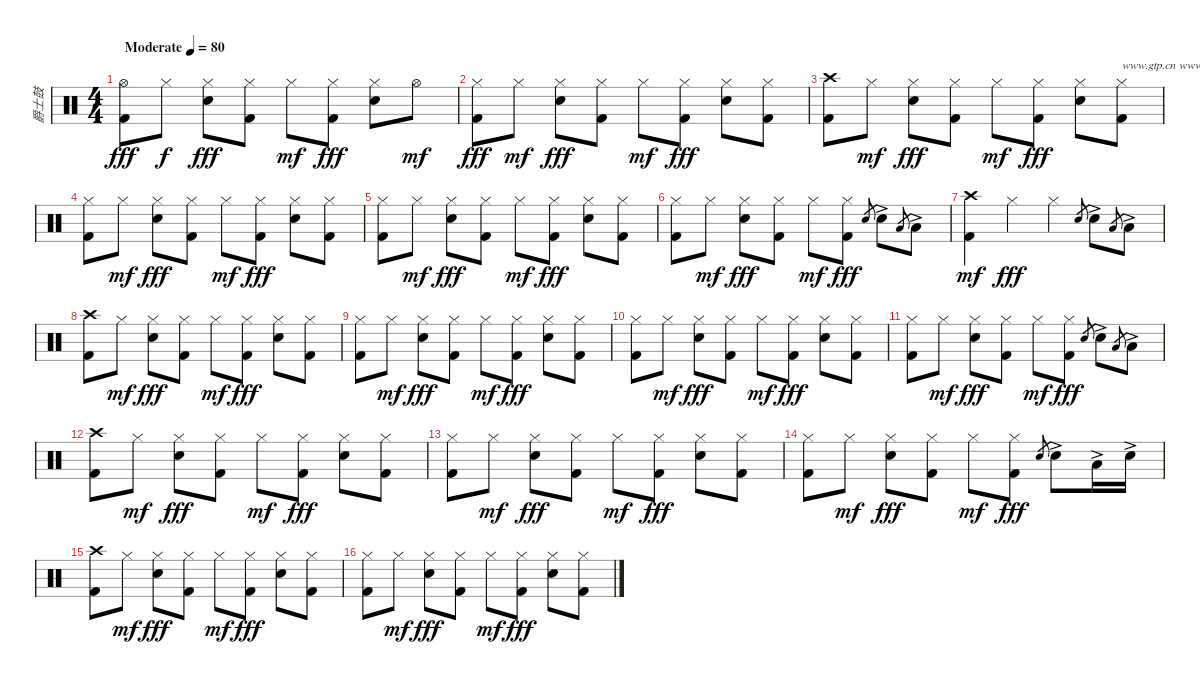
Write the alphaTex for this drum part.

\track ("爵士鼓" "爵士鼓") {instrument percussion}
\staff {score}
\articulation defaults
\ts (4 4)
\tempo (80 "Moderate")
\clef neutral
\ks c
("Hi-Hat (open)" "Kick (hit) 2").8{dy fff} "Hi-Hat (closed)".8{dy f} ("Hi-Hat (closed)" "Electric Snare (hit)").8{dy fff} ("Hi-Hat (closed)" "Kick (hit) 2").8 "Hi-Hat (closed)".8{dy mf} ("Hi-Hat (closed)" "Kick (hit) 2").8{dy fff} ("Hi-Hat (closed)" "Electric Snare (hit)").8 "Hi-Hat (open)".8{dy mf} |
("Hi-Hat (closed)" "Kick (hit) 2").8{dy fff} "Hi-Hat (closed)".8{dy mf} ("Hi-Hat (closed)" "Electric Snare (hit)").8{dy fff} ("Hi-Hat (closed)" "Kick (hit) 2").8 "Hi-Hat (closed)".8{dy mf} ("Hi-Hat (closed)" "Kick (hit) 2").8{dy fff} ("Hi-Hat (closed)" "Electric Snare (hit)").8 ("Hi-Hat (closed)" "Kick (hit) 2").8 |
("Crash high (hit)" "Kick (hit) 2").8 "Hi-Hat (closed)".8{dy mf} ("Hi-Hat (closed)" "Electric Snare (hit)").8{dy fff} ("Hi-Hat (closed)" "Kick (hit) 2").8 "Hi-Hat (closed)".8{dy mf} ("Hi-Hat (closed)" "Kick (hit) 2").8{dy fff} ("Hi-Hat (closed)" "Electric Snare (hit)").8 ("Hi-Hat (closed)" "Kick (hit) 2").8{txt "www.gtp.cn www.51gtp.com联合为您提供优秀的GTP!"} |
("Hi-Hat (closed)" "Kick (hit) 2").8 "Hi-Hat (closed)".8{dy mf} ("Hi-Hat (closed)" "Electric Snare (hit)").8{dy fff} ("Hi-Hat (closed)" "Kick (hit) 2").8 "Hi-Hat (closed)".8{dy mf} ("Hi-Hat (closed)" "Kick (hit) 2").8{dy fff} ("Hi-Hat (closed)" "Electric Snare (hit)").8 ("Hi-Hat (closed)" "Kick (hit) 2").8 |
("Hi-Hat (closed)" "Kick (hit) 2").8 "Hi-Hat (closed)".8{dy mf} ("Hi-Hat (closed)" "Electric Snare (hit)").8{dy fff} ("Hi-Hat (closed)" "Kick (hit) 2").8 "Hi-Hat (closed)".8{dy mf} ("Hi-Hat (closed)" "Kick (hit) 2").8{dy fff} ("Hi-Hat (closed)" "Electric Snare (hit)").8 ("Hi-Hat (closed)" "Kick (hit) 2").8 |
("Hi-Hat (closed)" "Kick (hit) 2").8 "Hi-Hat (closed)".8{dy mf} ("Hi-Hat (closed)" "Electric Snare (hit)").8{dy fff} ("Hi-Hat (closed)" "Kick (hit) 2").8 "Hi-Hat (closed)".8{dy mf} ("Hi-Hat (closed)" "Kick (hit) 2").8{dy fff} "Electric Snare (hit)".8{gr} "Electric Snare (hit)"{ac}.8 "Low Tom (hit)".8{gr} "Low Tom (hit)"{ac}.8 |
("Crash high (hit)" "Kick (hit) 2").4{dy mf} "Hi-Hat (closed)".4{dy fff} "Hi-Hat (closed)".4 "Electric Snare (hit)".8{gr} "Electric Snare (hit)"{ac}.8 "Low Tom (hit)".8{gr} "Low Tom (hit)"{ac}.8 |
("Crash high (hit)" "Kick (hit) 2").8 "Hi-Hat (closed)".8{dy mf} ("Hi-Hat (closed)" "Electric Snare (hit)").8{dy fff} ("Hi-Hat (closed)" "Kick (hit) 2").8 "Hi-Hat (closed)".8{dy mf} ("Hi-Hat (closed)" "Kick (hit) 2").8{dy fff} ("Hi-Hat (closed)" "Electric Snare (hit)").8 ("Hi-Hat (closed)" "Kick (hit) 2").8 |
("Hi-Hat (closed)" "Kick (hit) 2").8 "Hi-Hat (closed)".8{dy mf} ("Hi-Hat (closed)" "Electric Snare (hit)").8{dy fff} ("Hi-Hat (closed)" "Kick (hit) 2").8 "Hi-Hat (closed)".8{dy mf} ("Hi-Hat (closed)" "Kick (hit) 2").8{dy fff} ("Hi-Hat (closed)" "Electric Snare (hit)").8 ("Hi-Hat (closed)" "Kick (hit) 2").8 |
("Hi-Hat (closed)" "Kick (hit) 2").8 "Hi-Hat (closed)".8{dy mf} ("Hi-Hat (closed)" "Electric Snare (hit)").8{dy fff} ("Hi-Hat (closed)" "Kick (hit) 2").8 "Hi-Hat (closed)".8{dy mf} ("Hi-Hat (closed)" "Kick (hit) 2").8{dy fff} ("Hi-Hat (closed)" "Electric Snare (hit)").8 ("Hi-Hat (closed)" "Kick (hit) 2").8 |
("Hi-Hat (closed)" "Kick (hit) 2").8 "Hi-Hat (closed)".8{dy mf} ("Hi-Hat (closed)" "Electric Snare (hit)").8{dy fff} ("Hi-Hat (closed)" "Kick (hit) 2").8 "Hi-Hat (closed)".8{dy mf} ("Hi-Hat (closed)" "Kick (hit) 2").8{dy fff} "Electric Snare (hit)".8{gr} "Electric Snare (hit)"{ac}.8 "Low Tom (hit)".8{gr} "Low Tom (hit)"{ac}.8 |
("Crash high (hit)" "Kick (hit) 2").8 "Hi-Hat (closed)".8{dy mf} ("Hi-Hat (closed)" "Electric Snare (hit)").8{dy fff} ("Hi-Hat (closed)" "Kick (hit) 2").8 "Hi-Hat (closed)".8{dy mf} ("Hi-Hat (closed)" "Kick (hit) 2").8{dy fff} ("Hi-Hat (closed)" "Electric Snare (hit)").8 ("Hi-Hat (closed)" "Kick (hit) 2").8 |
("Hi-Hat (closed)" "Kick (hit) 2").8 "Hi-Hat (closed)".8{dy mf} ("Hi-Hat (closed)" "Electric Snare (hit)").8{dy fff} ("Hi-Hat (closed)" "Kick (hit) 2").8 "Hi-Hat (closed)".8{dy mf} ("Hi-Hat (closed)" "Kick (hit) 2").8{dy fff} ("Hi-Hat (closed)" "Electric Snare (hit)").8 ("Hi-Hat (closed)" "Kick (hit) 2").8 |
("Hi-Hat (closed)" "Kick (hit) 2").8 "Hi-Hat (closed)".8{dy mf} ("Hi-Hat (closed)" "Electric Snare (hit)").8{dy fff} ("Hi-Hat (closed)" "Kick (hit) 2").8 "Hi-Hat (closed)".8{dy mf} ("Hi-Hat (closed)" "Kick (hit) 2").8{dy fff} "Electric Snare (hit)".8{gr} "Electric Snare (hit)"{ac}.8 "Low Tom (hit)"{ac}.16 "Electric Snare (hit)"{ac}.16 |
("Crash high (hit)" "Kick (hit) 2").8 "Hi-Hat (closed)".8{dy mf} ("Hi-Hat (closed)" "Electric Snare (hit)").8{dy fff} ("Hi-Hat (closed)" "Kick (hit) 2").8 "Hi-Hat (closed)".8{dy mf} ("Hi-Hat (closed)" "Kick (hit) 2").8{dy fff} ("Hi-Hat (closed)" "Electric Snare (hit)").8 ("Hi-Hat (closed)" "Kick (hit) 2").8 |
("Hi-Hat (closed)" "Kick (hit) 2").8 "Hi-Hat (closed)".8{dy mf} ("Hi-Hat (closed)" "Electric Snare (hit)").8{dy fff} ("Hi-Hat (closed)" "Kick (hit) 2").8 "Hi-Hat (closed)".8{dy mf} ("Hi-Hat (closed)" "Kick (hit) 2").8{dy fff} ("Hi-Hat (closed)" "Electric Snare (hit)").8 ("Hi-Hat (closed)" "Kick (hit) 2").8
